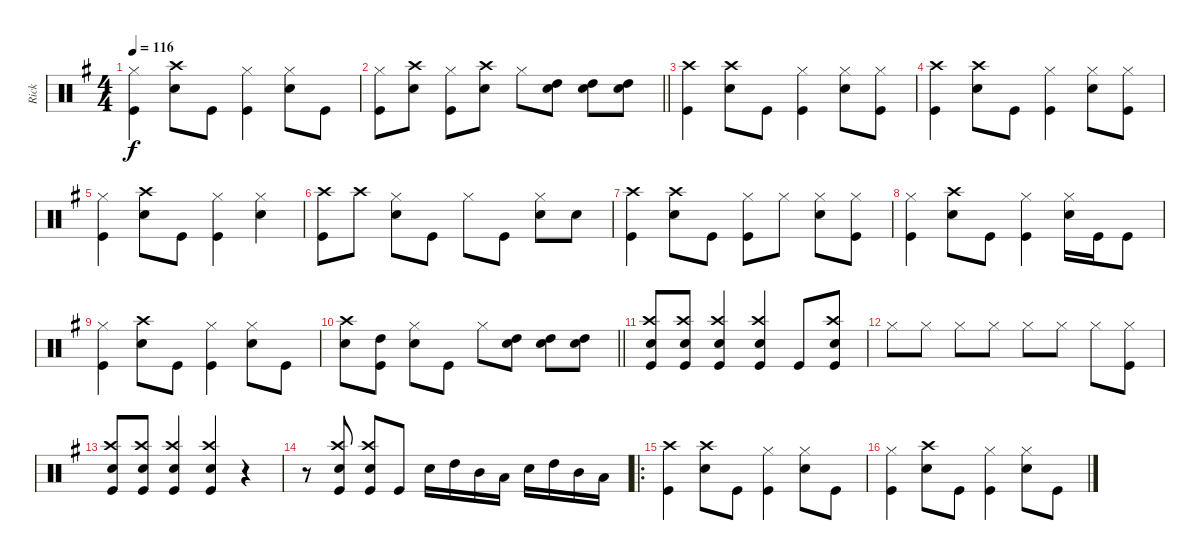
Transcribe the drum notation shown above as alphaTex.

\track ("Rick" "Rick") {instrument percussion}
\staff {score}
\articulation defaults
\ts (4 4)
\tempo 116
\clef neutral
\ks g
("Hi-Hat (closed)" "Kick (hit)").4{dy f} ("Crash high (hit)" "Snare (hit) 2").8 "Kick (hit)".8 ("Hi-Hat (closed)" "Kick (hit)").4 ("Hi-Hat (closed)" "Snare (hit) 2").8 "Kick (hit)".8 |
\barLineRight lightlight
("Hi-Hat (closed)" "Kick (hit)").8 ("Crash high (hit)" "Snare (hit) 2").8 ("Hi-Hat (closed)" "Kick (hit)").8 ("Crash high (hit)" "Snare (hit) 2").8 "Hi-Hat (closed)".8 ("High Tom (hit)" "Snare (hit) 2").8 ("High Tom (hit)" "Snare (hit) 2").8 ("High Tom (hit)" "Snare (hit) 2").8 |
("Crash high (hit)" "Kick (hit)").4 ("Crash high (hit)" "Snare (hit) 2").8 "Kick (hit)".8 ("Hi-Hat (closed)" "Kick (hit)").4 ("Hi-Hat (closed)" "Snare (hit) 2").8 ("Hi-Hat (closed)" "Kick (hit)").8 |
("Crash high (hit)" "Kick (hit)").4 ("Crash high (hit)" "Snare (hit) 2").8 "Kick (hit)".8 ("Hi-Hat (closed)" "Kick (hit)").4 ("Hi-Hat (closed)" "Snare (hit) 2").8 ("Hi-Hat (closed)" "Kick (hit)").8 |
("Hi-Hat (closed)" "Kick (hit)").4 ("Crash high (hit)" "Snare (hit) 2").8 "Kick (hit)".8 ("Hi-Hat (closed)" "Kick (hit)").4 ("Hi-Hat (closed)" "Snare (hit) 2").4 |
("Crash high (hit)" "Kick (hit)").8 "Crash high (hit)".8 ("Hi-Hat (closed)" "Snare (hit) 2").8 "Kick (hit)".8 "Hi-Hat (closed)".8 "Kick (hit)".8 ("Hi-Hat (closed)" "Snare (hit) 2").8 "Snare (hit) 2".8 |
("Crash high (hit)" "Kick (hit)").4 ("Crash high (hit)" "Snare (hit) 2").8 "Kick (hit)".8 ("Hi-Hat (closed)" "Kick (hit)").8 "Hi-Hat (closed)".8 ("Hi-Hat (closed)" "Snare (hit) 2").8 ("Hi-Hat (closed)" "Kick (hit)").8 |
("Hi-Hat (closed)" "Kick (hit)").4 ("Crash high (hit)" "Snare (hit) 2").8 "Kick (hit)".8 ("Hi-Hat (closed)" "Kick (hit)").4 ("Hi-Hat (closed)" "Snare (hit) 2").16 "Kick (hit)".16 "Kick (hit)".8 |
("Hi-Hat (closed)" "Kick (hit)").4 ("Crash high (hit)" "Snare (hit) 2").8 "Kick (hit)".8 ("Hi-Hat (closed)" "Kick (hit)").4 ("Hi-Hat (closed)" "Snare (hit) 2").8 "Kick (hit)".8 |
\barLineRight lightlight
("Crash high (hit)" "Snare (hit) 2").8 ("High Tom (hit)" "Kick (hit)").8 ("Hi-Hat (closed)" "Snare (hit) 2").8 "Kick (hit)".8 "Hi-Hat (closed)".8 ("High Tom (hit)" "Snare (hit) 2").8 ("High Tom (hit)" "Snare (hit) 2").8 ("High Tom (hit)" "Snare (hit) 2").8 |
("Crash high (hit)" "Snare (hit) 2" "Kick (hit)").8 ("Crash high (hit)" "Snare (hit) 2" "Kick (hit)").8 ("Crash high (hit)" "Snare (hit) 2" "Kick (hit)").4 ("Crash high (hit)" "Snare (hit) 2" "Kick (hit)").4 "Kick (hit)".8 ("Crash high (hit)" "Snare (hit) 2" "Kick (hit)").8 |
"Hi-Hat (closed)".8 "Hi-Hat (closed)".8 "Hi-Hat (closed)".8 "Hi-Hat (closed)".8 "Hi-Hat (closed)".8 "Hi-Hat (closed)".8 "Hi-Hat (closed)".8 ("Hi-Hat (closed)" "Kick (hit)").8 |
("Crash high (hit)" "Snare (hit) 2" "Kick (hit)").8 ("Crash high (hit)" "Snare (hit) 2" "Kick (hit)").8 ("Crash high (hit)" "Snare (hit) 2" "Kick (hit)").4 ("Crash high (hit)" "Snare (hit) 2" "Kick (hit)").4 r.4 |
r.8 ("Crash high (hit)" "Snare (hit) 2" "Kick (hit)").8 ("Crash high (hit)" "Snare (hit) 2" "Kick (hit)").8 "Kick (hit)".8 "Snare (hit) 2".16 "High Tom (hit)".16 "Mid Tom (hit)".16 "Low Tom (hit)".16 "Snare (hit) 2".16 "High Tom (hit)".16 "Mid Tom (hit)".16 "Low Tom (hit)".16 |
\ro
("Crash high (hit)" "Kick (hit)").4 ("Crash high (hit)" "Snare (hit) 2").8 "Kick (hit)".8 ("Hi-Hat (closed)" "Kick (hit)").4 ("Hi-Hat (closed)" "Snare (hit) 2").8 "Kick (hit)".8 |
("Hi-Hat (closed)" "Kick (hit)").4 ("Crash high (hit)" "Snare (hit) 2").8 "Kick (hit)".8 ("Hi-Hat (closed)" "Kick (hit)").4 ("Hi-Hat (closed)" "Snare (hit) 2").8 "Kick (hit)".8
